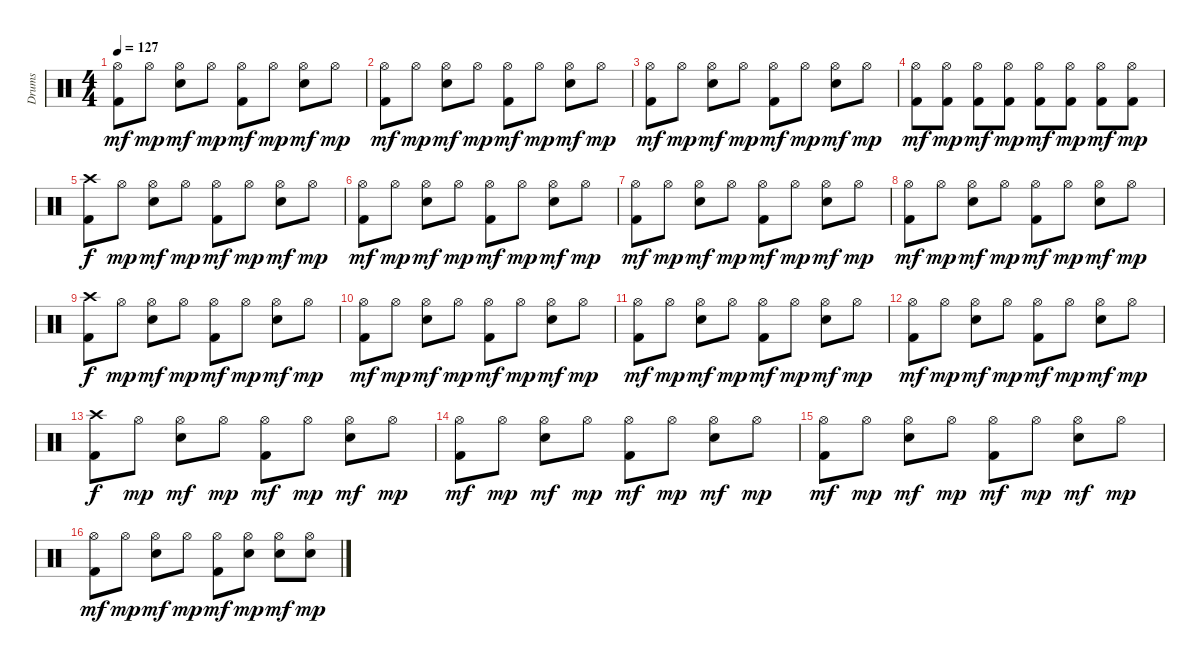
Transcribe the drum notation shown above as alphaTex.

\track ("Drums" "Drums") {instrument percussion}
\staff {score}
\articulation defaults
\ts (4 4)
\tempo 127
\clef neutral
\ks c
("Hi-Hat (open)" "Kick (hit) 2").8{dy mf} "Hi-Hat (open)".8{dy mp} ("Hi-Hat (open)" "Electric Snare (hit)").8{dy mf} "Hi-Hat (open)".8{dy mp} ("Hi-Hat (open)" "Kick (hit) 2").8{dy mf} "Hi-Hat (open)".8{dy mp} ("Hi-Hat (open)" "Electric Snare (hit)").8{dy mf} "Hi-Hat (open)".8{dy mp} |
("Hi-Hat (open)" "Kick (hit) 2").8{dy mf} "Hi-Hat (open)".8{dy mp} ("Hi-Hat (open)" "Electric Snare (hit)").8{dy mf} "Hi-Hat (open)".8{dy mp} ("Hi-Hat (open)" "Kick (hit) 2").8{dy mf} "Hi-Hat (open)".8{dy mp} ("Hi-Hat (open)" "Electric Snare (hit)").8{dy mf} "Hi-Hat (open)".8{dy mp} |
("Hi-Hat (open)" "Kick (hit) 2").8{dy mf} "Hi-Hat (open)".8{dy mp} ("Hi-Hat (open)" "Electric Snare (hit)").8{dy mf} "Hi-Hat (open)".8{dy mp} ("Hi-Hat (open)" "Kick (hit) 2").8{dy mf} "Hi-Hat (open)".8{dy mp} ("Hi-Hat (open)" "Electric Snare (hit)").8{dy mf} "Hi-Hat (open)".8{dy mp} |
("Hi-Hat (open)" "Kick (hit) 2").8{dy mf} ("Hi-Hat (open)" "Kick (hit) 2").8{dy mp} ("Hi-Hat (open)" "Kick (hit) 2").8{dy mf} ("Hi-Hat (open)" "Kick (hit) 2").8{dy mp} ("Hi-Hat (open)" "Kick (hit) 2").8{dy mf} ("Hi-Hat (open)" "Kick (hit) 2").8{dy mp} ("Hi-Hat (open)" "Kick (hit) 2").8{dy mf} ("Hi-Hat (open)" "Kick (hit) 2").8{dy mp} |
("Crash high (hit)" "Kick (hit) 2").8{dy f} "Hi-Hat (open)".8{dy mp} ("Hi-Hat (open)" "Electric Snare (hit)").8{dy mf} "Hi-Hat (open)".8{dy mp} ("Hi-Hat (open)" "Kick (hit) 2").8{dy mf} "Hi-Hat (open)".8{dy mp} ("Hi-Hat (open)" "Electric Snare (hit)").8{dy mf} "Hi-Hat (open)".8{dy mp} |
("Hi-Hat (open)" "Kick (hit) 2").8{dy mf} "Hi-Hat (open)".8{dy mp} ("Hi-Hat (open)" "Electric Snare (hit)").8{dy mf} "Hi-Hat (open)".8{dy mp} ("Hi-Hat (open)" "Kick (hit) 2").8{dy mf} "Hi-Hat (open)".8{dy mp} ("Hi-Hat (open)" "Electric Snare (hit)").8{dy mf} "Hi-Hat (open)".8{dy mp} |
("Hi-Hat (open)" "Kick (hit) 2").8{dy mf} "Hi-Hat (open)".8{dy mp} ("Hi-Hat (open)" "Electric Snare (hit)").8{dy mf} "Hi-Hat (open)".8{dy mp} ("Hi-Hat (open)" "Kick (hit) 2").8{dy mf} "Hi-Hat (open)".8{dy mp} ("Hi-Hat (open)" "Electric Snare (hit)").8{dy mf} "Hi-Hat (open)".8{dy mp} |
("Hi-Hat (open)" "Kick (hit) 2").8{dy mf} "Hi-Hat (open)".8{dy mp} ("Hi-Hat (open)" "Electric Snare (hit)").8{dy mf} "Hi-Hat (open)".8{dy mp} ("Hi-Hat (open)" "Kick (hit) 2").8{dy mf} "Hi-Hat (open)".8{dy mp} ("Hi-Hat (open)" "Electric Snare (hit)").8{dy mf} "Hi-Hat (open)".8{dy mp} |
("Crash high (hit)" "Kick (hit) 2").8{dy f} "Hi-Hat (open)".8{dy mp} ("Hi-Hat (open)" "Electric Snare (hit)").8{dy mf} "Hi-Hat (open)".8{dy mp} ("Hi-Hat (open)" "Kick (hit) 2").8{dy mf} "Hi-Hat (open)".8{dy mp} ("Hi-Hat (open)" "Electric Snare (hit)").8{dy mf} "Hi-Hat (open)".8{dy mp} |
("Hi-Hat (open)" "Kick (hit) 2").8{dy mf} "Hi-Hat (open)".8{dy mp} ("Hi-Hat (open)" "Electric Snare (hit)").8{dy mf} "Hi-Hat (open)".8{dy mp} ("Hi-Hat (open)" "Kick (hit) 2").8{dy mf} "Hi-Hat (open)".8{dy mp} ("Hi-Hat (open)" "Electric Snare (hit)").8{dy mf} "Hi-Hat (open)".8{dy mp} |
("Hi-Hat (open)" "Kick (hit) 2").8{dy mf} "Hi-Hat (open)".8{dy mp} ("Hi-Hat (open)" "Electric Snare (hit)").8{dy mf} "Hi-Hat (open)".8{dy mp} ("Hi-Hat (open)" "Kick (hit) 2").8{dy mf} "Hi-Hat (open)".8{dy mp} ("Hi-Hat (open)" "Electric Snare (hit)").8{dy mf} "Hi-Hat (open)".8{dy mp} |
("Hi-Hat (open)" "Kick (hit) 2").8{dy mf} "Hi-Hat (open)".8{dy mp} ("Hi-Hat (open)" "Electric Snare (hit)").8{dy mf} "Hi-Hat (open)".8{dy mp} ("Hi-Hat (open)" "Kick (hit) 2").8{dy mf} "Hi-Hat (open)".8{dy mp} ("Hi-Hat (open)" "Electric Snare (hit)").8{dy mf} "Hi-Hat (open)".8{dy mp} |
("Crash high (hit)" "Kick (hit) 2").8{dy f} "Hi-Hat (open)".8{dy mp} ("Hi-Hat (open)" "Electric Snare (hit)").8{dy mf} "Hi-Hat (open)".8{dy mp} ("Hi-Hat (open)" "Kick (hit) 2").8{dy mf} "Hi-Hat (open)".8{dy mp} ("Hi-Hat (open)" "Electric Snare (hit)").8{dy mf} "Hi-Hat (open)".8{dy mp} |
("Hi-Hat (open)" "Kick (hit) 2").8{dy mf} "Hi-Hat (open)".8{dy mp} ("Hi-Hat (open)" "Electric Snare (hit)").8{dy mf} "Hi-Hat (open)".8{dy mp} ("Hi-Hat (open)" "Kick (hit) 2").8{dy mf} "Hi-Hat (open)".8{dy mp} ("Hi-Hat (open)" "Electric Snare (hit)").8{dy mf} "Hi-Hat (open)".8{dy mp} |
("Hi-Hat (open)" "Kick (hit) 2").8{dy mf} "Hi-Hat (open)".8{dy mp} ("Hi-Hat (open)" "Electric Snare (hit)").8{dy mf} "Hi-Hat (open)".8{dy mp} ("Hi-Hat (open)" "Kick (hit) 2").8{dy mf} "Hi-Hat (open)".8{dy mp} ("Hi-Hat (open)" "Electric Snare (hit)").8{dy mf} "Hi-Hat (open)".8{dy mp} |
("Hi-Hat (open)" "Kick (hit) 2").8{dy mf} "Hi-Hat (open)".8{dy mp} ("Hi-Hat (open)" "Electric Snare (hit)").8{dy mf} "Hi-Hat (open)".8{dy mp} ("Hi-Hat (open)" "Kick (hit) 2").8{dy mf} ("Hi-Hat (open)" "Electric Snare (hit)").8{dy mp} ("Hi-Hat (open)" "Electric Snare (hit)").8{dy mf} ("Hi-Hat (open)" "Electric Snare (hit)").8{dy mp}
